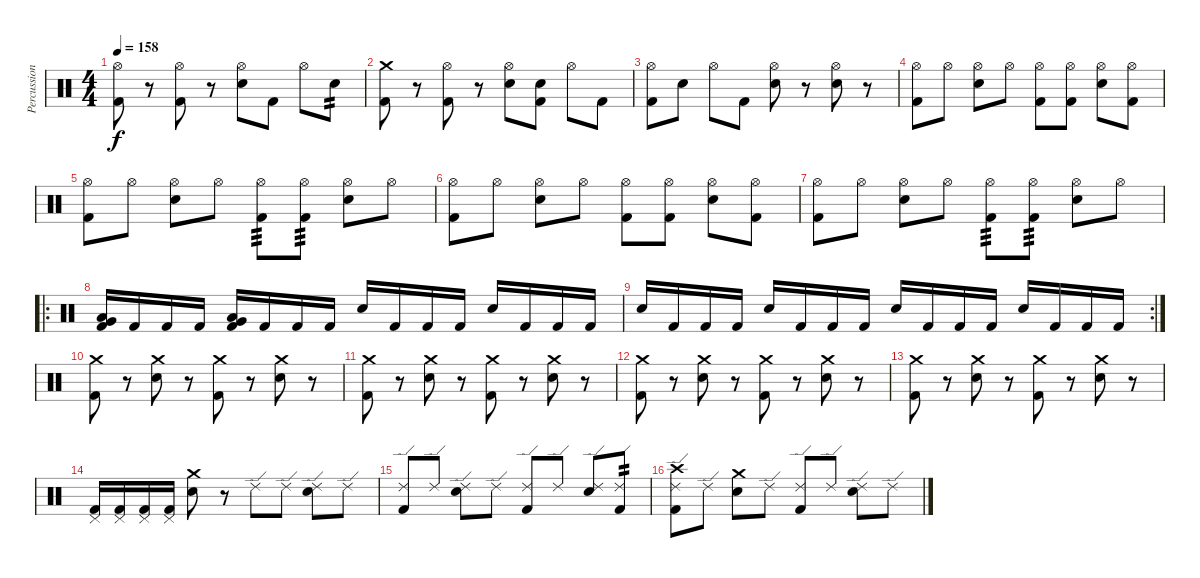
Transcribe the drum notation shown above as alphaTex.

\track ("Percussion" "Percussion") {instrument percussion}
\staff {score}
\articulation defaults
\ts (4 4)
\tempo 158
\clef neutral
\ks c
("Hi-Hat (open)" "Kick (hit) 2").8{dy f} r.8 ("Hi-Hat (open)" "Kick (hit) 2").8 r.8 ("Hi-Hat (open)" "Electric Snare (hit)").8 "Kick (hit) 2".8 "Hi-Hat (open)".8 "Electric Snare (hit)".8{tp 2} |
("Crash medium (hit)" "Kick (hit) 2").8 r.8 ("Hi-Hat (open)" "Kick (hit) 2").8 r.8 ("Hi-Hat (open)" "Electric Snare (hit)").8 ("Electric Snare (hit)" "Kick (hit) 2").8 "Hi-Hat (open)".8 "Kick (hit) 2".8 |
("Hi-Hat (open)" "Kick (hit) 2").8 "Electric Snare (hit)".8 "Hi-Hat (open)".8 "Kick (hit) 2".8 ("Hi-Hat (open)" "Electric Snare (hit)").8 r.8 ("Hi-Hat (open)" "Electric Snare (hit)").8 r.8 |
("Hi-Hat (open)" "Kick (hit) 2").8 "Hi-Hat (open)".8 ("Hi-Hat (open)" "Electric Snare (hit)").8 "Hi-Hat (open)".8 ("Hi-Hat (open)" "Kick (hit) 2").8 ("Hi-Hat (open)" "Kick (hit) 2").8 ("Hi-Hat (open)" "Electric Snare (hit)").8 ("Hi-Hat (open)" "Kick (hit) 2").8 |
("Hi-Hat (open)" "Kick (hit) 2").8 "Hi-Hat (open)".8 ("Hi-Hat (open)" "Electric Snare (hit)").8 "Hi-Hat (open)".8 ("Hi-Hat (open)" "Kick (hit) 2").8{tp 3} ("Hi-Hat (open)" "Kick (hit) 2").8{tp 3} ("Hi-Hat (open)" "Electric Snare (hit)").8 "Hi-Hat (open)".8 |
("Hi-Hat (open)" "Kick (hit) 2").8 "Hi-Hat (open)".8 ("Hi-Hat (open)" "Electric Snare (hit)").8 "Hi-Hat (open)".8 ("Hi-Hat (open)" "Kick (hit) 2").8 ("Hi-Hat (open)" "Kick (hit) 2").8 ("Hi-Hat (open)" "Electric Snare (hit)").8 ("Hi-Hat (open)" "Kick (hit) 2").8 |
("Hi-Hat (open)" "Kick (hit) 2").8 "Hi-Hat (open)".8 ("Hi-Hat (open)" "Electric Snare (hit)").8 "Hi-Hat (open)".8 ("Hi-Hat (open)" "Kick (hit) 2").8{tp 3} ("Hi-Hat (open)" "Kick (hit) 2").8{tp 3} ("Hi-Hat (open)" "Electric Snare (hit)").8 "Hi-Hat (open)".8 |
\ro
("Very Low Tom (hit)" "Low Tom (hit)" "Kick (hit) 2").16 "Kick (hit) 2".16 "Kick (hit) 2".16 "Kick (hit) 2".16 ("Very Low Tom (hit)" "Low Tom (hit)" "Kick (hit) 2").16 "Kick (hit) 2".16 "Kick (hit) 2".16 "Kick (hit) 2".16 "Electric Snare (hit)".16 "Kick (hit) 2".16 "Kick (hit) 2".16 "Kick (hit) 2".16 "Electric Snare (hit)".16 "Kick (hit) 2".16 "Kick (hit) 2".16 "Kick (hit) 2".16 |
\rc 2 "Electric Snare (hit)".16 "Kick (hit) 2".16 "Kick (hit) 2".16 "Kick (hit) 2".16 "Electric Snare (hit)".16 "Kick (hit) 2".16 "Kick (hit) 2".16 "Kick (hit) 2".16 "Electric Snare (hit)".16 "Kick (hit) 2".16 "Kick (hit) 2".16 "Kick (hit) 2".16 "Electric Snare (hit)".16 "Kick (hit) 2".16 "Kick (hit) 2".16 "Kick (hit) 2".16
|
("Crash medium (hit)" "Kick (hit) 2").8 r.8 ("Crash medium (hit)" "Electric Snare (hit)").8 r.8 ("Crash medium (hit)" "Kick (hit) 2").8 r.8 ("Crash medium (hit)" "Electric Snare (hit)").8 r.8 |
("Crash medium (hit)" "Kick (hit) 2").8 r.8 ("Crash medium (hit)" "Electric Snare (hit)").8 r.8 ("Crash medium (hit)" "Kick (hit) 2").8 r.8 ("Crash medium (hit)" "Electric Snare (hit)").8 r.8 |
("Crash medium (hit)" "Kick (hit) 2").8 r.8 ("Crash medium (hit)" "Electric Snare (hit)").8 r.8 ("Crash medium (hit)" "Kick (hit) 2").8 r.8 ("Crash medium (hit)" "Electric Snare (hit)").8 r.8 |
("Crash medium (hit)" "Kick (hit) 2").8 r.8 ("Crash medium (hit)" "Electric Snare (hit)").8 r.8 ("Crash medium (hit)" "Kick (hit) 2").8 r.8 ("Crash medium (hit)" "Electric Snare (hit)").8 r.8 |
("Pedal Hi-Hat (hit)" "Kick (hit) 2").16 ("Pedal Hi-Hat (hit)" "Kick (hit) 2").16 ("Pedal Hi-Hat (hit)" "Kick (hit) 2").16 ("Pedal Hi-Hat (hit)" "Kick (hit) 2").16 ("Crash medium (hit)" "Electric Snare (hit)").8 r.8 "Ride (edge) 2".8 "Ride (edge) 2".8 ("Ride (edge) 2" "Electric Snare (hit)").8 "Ride (edge) 2".8 |
("Ride (edge) 2" "Kick (hit) 2").8 "Ride (edge) 2".8 ("Ride (edge) 2" "Electric Snare (hit)").8 "Ride (edge) 2".8 ("Ride (edge) 2" "Kick (hit) 2").8 "Ride (edge) 2".8 ("Ride (edge) 2" "Electric Snare (hit)").8 ("Ride (edge) 2" "Kick (hit) 2").8{tp 2} |
("Ride (edge) 2" "Crash high (hit)" "Kick (hit) 2").8 "Ride (edge) 2".8 ("Crash medium (hit)" "Electric Snare (hit)").8 "Ride (edge) 2".8 ("Ride (edge) 2" "Kick (hit) 2").8 "Ride (edge) 2".8 ("Ride (edge) 2" "Electric Snare (hit)").8 "Ride (edge) 2".8
